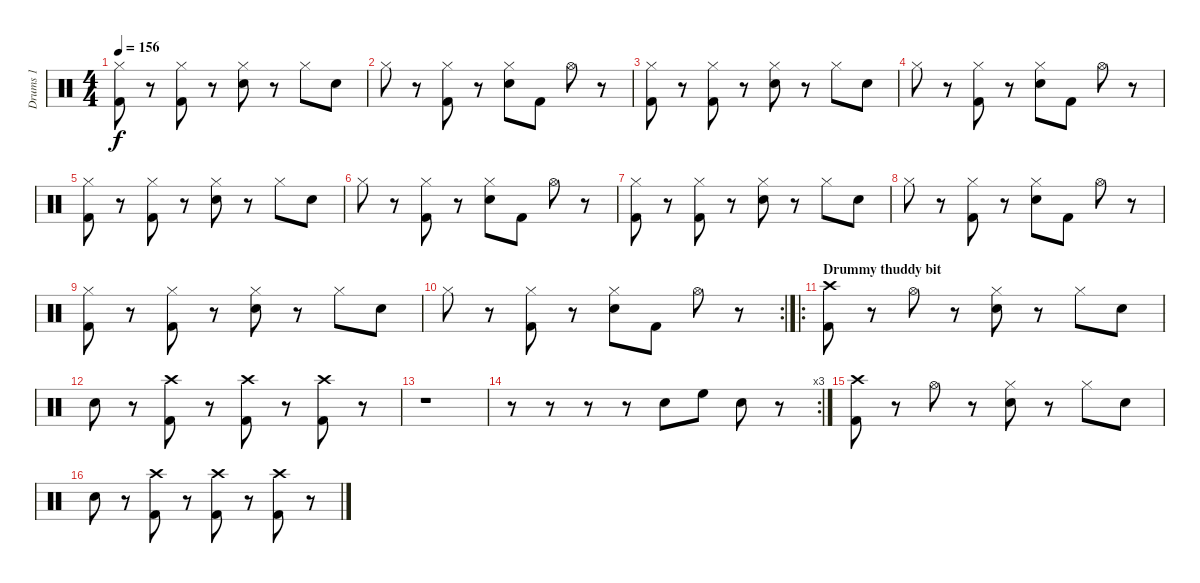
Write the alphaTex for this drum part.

\track ("Drums 1" "Drums 1") {instrument percussion}
\staff {score}
\articulation defaults
\ts (4 4)
\tempo 156
\clef neutral
\ks c
("Hi-Hat (closed)" "Kick (hit) 2").8{dy f} r.8 ("Hi-Hat (closed)" "Kick (hit) 2").8 r.8 ("Hi-Hat (closed)" "Snare (hit) 2").8 r.8 "Hi-Hat (closed)".8 "Snare (hit) 2".8 |
"Hi-Hat (closed)".8 r.8 ("Hi-Hat (closed)" "Kick (hit) 2").8 r.8 ("Hi-Hat (closed)" "Snare (hit) 2").8 "Kick (hit) 2".8 "Hi-Hat (open)".8 r.8 |
("Hi-Hat (closed)" "Kick (hit) 2").8 r.8 ("Hi-Hat (closed)" "Kick (hit) 2").8 r.8 ("Hi-Hat (closed)" "Snare (hit) 2").8 r.8 "Hi-Hat (closed)".8 "Snare (hit) 2".8 |
"Hi-Hat (closed)".8 r.8 ("Hi-Hat (closed)" "Kick (hit) 2").8 r.8 ("Hi-Hat (closed)" "Snare (hit) 2").8 "Kick (hit) 2".8 "Hi-Hat (open)".8 r.8 |
("Hi-Hat (closed)" "Kick (hit) 2").8 r.8 ("Hi-Hat (closed)" "Kick (hit) 2").8 r.8 ("Hi-Hat (closed)" "Snare (hit) 2").8 r.8 "Hi-Hat (closed)".8 "Snare (hit) 2".8 |
"Hi-Hat (closed)".8 r.8 ("Hi-Hat (closed)" "Kick (hit) 2").8 r.8 ("Hi-Hat (closed)" "Snare (hit) 2").8 "Kick (hit) 2".8 "Hi-Hat (open)".8 r.8 |
("Hi-Hat (closed)" "Kick (hit) 2").8 r.8 ("Hi-Hat (closed)" "Kick (hit) 2").8 r.8 ("Hi-Hat (closed)" "Snare (hit) 2").8 r.8 "Hi-Hat (closed)".8 "Snare (hit) 2".8 |
"Hi-Hat (closed)".8 r.8 ("Hi-Hat (closed)" "Kick (hit) 2").8 r.8 ("Hi-Hat (closed)" "Snare (hit) 2").8 "Kick (hit) 2".8 "Hi-Hat (open)".8 r.8 |
("Hi-Hat (closed)" "Kick (hit) 2").8 r.8 ("Hi-Hat (closed)" "Kick (hit) 2").8 r.8 ("Hi-Hat (closed)" "Snare (hit) 2").8 r.8 "Hi-Hat (closed)".8 "Snare (hit) 2".8 |
\rc 2 "Hi-Hat (closed)".8
r.8 ("Hi-Hat (closed)" "Kick (hit) 2").8 r.8 ("Hi-Hat (closed)" "Snare (hit) 2").8 "Kick (hit) 2".8 "Hi-Hat (open)".8 r.8 |
\ro
\section ("" "Drummy thuddy bit")
("Crash high (hit)" "Kick (hit) 2").8 r.8 "Hi-Hat (open)".8 r.8 ("Hi-Hat (closed)" "Snare (hit) 2").8 r.8 "Hi-Hat (closed)".8 "Snare (hit) 2".8 |
"Snare (hit) 2".8 r.8 ("Crash high (hit)" "Kick (hit) 2").8 r.8 ("Crash high (hit)" "Kick (hit) 2").8 r.8 ("Crash high (hit)" "Kick (hit) 2").8 r.8 |
r.1 |
\rc 3
r.8 r.8 r.8 r.8 "Snare (hit) 2".8 "High Floor Tom (hit)".8 "Snare (hit) 2".8 r.8 |
("Crash high (hit)" "Kick (hit) 2").8 r.8 "Hi-Hat (open)".8 r.8 ("Hi-Hat (closed)" "Snare (hit) 2").8 r.8 "Hi-Hat (closed)".8 "Snare (hit) 2".8 |
"Snare (hit) 2".8 r.8 ("Crash high (hit)" "Kick (hit) 2").8 r.8 ("Crash high (hit)" "Kick (hit) 2").8 r.8 ("Crash high (hit)" "Kick (hit) 2").8 r.8
